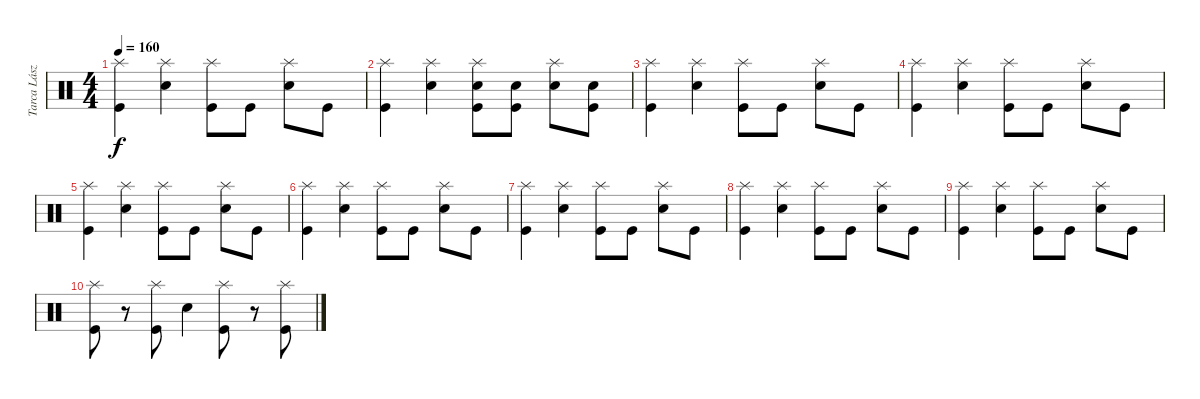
\track ("Tarca László" "Tarca Lász") {instrument percussion}
\staff {score}
\articulation defaults
\ts (4 4)
\tempo 160
\clef neutral
\ks c
("Splash (hit)" "Kick (hit)").4{dy f} ("Splash (hit)" "Electric Snare (hit)").4 ("Splash (hit)" "Kick (hit)").8 "Kick (hit)".8 ("Splash (hit)" "Electric Snare (hit)").8 "Kick (hit)".8 |
("Splash (hit)" "Kick (hit)").4 ("Splash (hit)" "Electric Snare (hit)").4 ("Splash (hit)" "Electric Snare (hit)" "Kick (hit)").8 ("Electric Snare (hit)" "Kick (hit)").8 ("Splash (hit)" "Electric Snare (hit)").8 ("Electric Snare (hit)" "Kick (hit)").8 |
("Splash (hit)" "Kick (hit)").4 ("Splash (hit)" "Electric Snare (hit)").4 ("Splash (hit)" "Kick (hit)").8 "Kick (hit)".8 ("Splash (hit)" "Electric Snare (hit)").8 "Kick (hit)".8 |
("Splash (hit)" "Kick (hit)").4 ("Splash (hit)" "Electric Snare (hit)").4 ("Splash (hit)" "Kick (hit)").8 "Kick (hit)".8 ("Splash (hit)" "Electric Snare (hit)").8 "Kick (hit)".8 |
("Splash (hit)" "Kick (hit)").4 ("Splash (hit)" "Electric Snare (hit)").4 ("Splash (hit)" "Kick (hit)").8 "Kick (hit)".8 ("Splash (hit)" "Electric Snare (hit)").8 "Kick (hit)".8 |
("Splash (hit)" "Kick (hit)").4 ("Splash (hit)" "Electric Snare (hit)").4 ("Splash (hit)" "Kick (hit)").8 "Kick (hit)".8 ("Splash (hit)" "Electric Snare (hit)").8 "Kick (hit)".8 |
("Splash (hit)" "Kick (hit)").4 ("Splash (hit)" "Electric Snare (hit)").4 ("Splash (hit)" "Kick (hit)").8 "Kick (hit)".8 ("Splash (hit)" "Electric Snare (hit)").8 "Kick (hit)".8 |
("Splash (hit)" "Kick (hit)").4 ("Splash (hit)" "Electric Snare (hit)").4 ("Splash (hit)" "Kick (hit)").8 "Kick (hit)".8 ("Splash (hit)" "Electric Snare (hit)").8 "Kick (hit)".8 |
("Splash (hit)" "Kick (hit)").4 ("Splash (hit)" "Electric Snare (hit)").4 ("Splash (hit)" "Kick (hit)").8 "Kick (hit)".8 ("Splash (hit)" "Electric Snare (hit)").8 "Kick (hit)".8 |
("Splash (hit)" "Kick (hit)").8 r.8 ("Splash (hit)" "Kick (hit)").8 "Electric Snare (hit)".4 ("Splash (hit)" "Kick (hit)").8 r.8 ("Splash (hit)" "Kick (hit)").8
